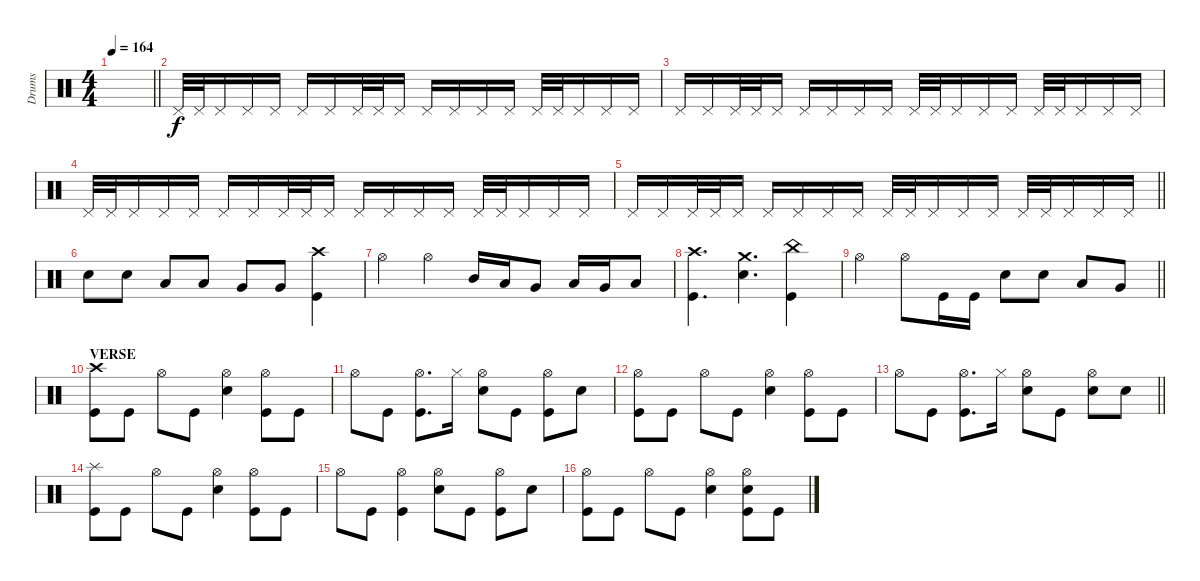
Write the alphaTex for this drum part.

\track ("Drums" "Drums") {instrument percussion}
\staff
\articulation defaults
\ts (4 4)
\tempo 164
\clef neutral
\barLineRight lightlight
\ks c
|
"Pedal Hi-Hat (hit)".32 "Pedal Hi-Hat (hit)".32 "Pedal Hi-Hat (hit)".16 "Pedal Hi-Hat (hit)".16 "Pedal Hi-Hat (hit)".16 "Pedal Hi-Hat (hit)".16 "Pedal Hi-Hat (hit)".16 "Pedal Hi-Hat (hit)".32 "Pedal Hi-Hat (hit)".32 "Pedal Hi-Hat (hit)".16 "Pedal Hi-Hat (hit)".16 "Pedal Hi-Hat (hit)".16 "Pedal Hi-Hat (hit)".16 "Pedal Hi-Hat (hit)".16 "Pedal Hi-Hat (hit)".32 "Pedal Hi-Hat (hit)".32 "Pedal Hi-Hat (hit)".16 "Pedal Hi-Hat (hit)".16 "Pedal Hi-Hat (hit)".16 |
"Pedal Hi-Hat (hit)".16 "Pedal Hi-Hat (hit)".16 "Pedal Hi-Hat (hit)".32 "Pedal Hi-Hat (hit)".32 "Pedal Hi-Hat (hit)".16 "Pedal Hi-Hat (hit)".16 "Pedal Hi-Hat (hit)".16 "Pedal Hi-Hat (hit)".16 "Pedal Hi-Hat (hit)".16 "Pedal Hi-Hat (hit)".32 "Pedal Hi-Hat (hit)".32 "Pedal Hi-Hat (hit)".16 "Pedal Hi-Hat (hit)".16 "Pedal Hi-Hat (hit)".16 "Pedal Hi-Hat (hit)".32 "Pedal Hi-Hat (hit)".32 "Pedal Hi-Hat (hit)".16 "Pedal Hi-Hat (hit)".16 "Pedal Hi-Hat (hit)".16 |
"Pedal Hi-Hat (hit)".32 "Pedal Hi-Hat (hit)".32 "Pedal Hi-Hat (hit)".16 "Pedal Hi-Hat (hit)".16 "Pedal Hi-Hat (hit)".16 "Pedal Hi-Hat (hit)".16 "Pedal Hi-Hat (hit)".16 "Pedal Hi-Hat (hit)".32 "Pedal Hi-Hat (hit)".32 "Pedal Hi-Hat (hit)".16 "Pedal Hi-Hat (hit)".16 "Pedal Hi-Hat (hit)".16 "Pedal Hi-Hat (hit)".16 "Pedal Hi-Hat (hit)".16 "Pedal Hi-Hat (hit)".32 "Pedal Hi-Hat (hit)".32 "Pedal Hi-Hat (hit)".16 "Pedal Hi-Hat (hit)".16 "Pedal Hi-Hat (hit)".16 |
\barLineRight lightlight "Pedal Hi-Hat (hit)".16 "Pedal Hi-Hat (hit)".16 "Pedal Hi-Hat (hit)".32 "Pedal Hi-Hat (hit)".32 "Pedal Hi-Hat (hit)".16 "Pedal Hi-Hat (hit)".16 "Pedal Hi-Hat (hit)".16 "Pedal Hi-Hat (hit)".16 "Pedal Hi-Hat (hit)".16 "Pedal Hi-Hat (hit)".32 "Pedal Hi-Hat (hit)".32 "Pedal Hi-Hat (hit)".16 "Pedal Hi-Hat (hit)".16 "Pedal Hi-Hat (hit)".16 "Pedal Hi-Hat (hit)".32 "Pedal Hi-Hat (hit)".32 "Pedal Hi-Hat (hit)".16 "Pedal Hi-Hat (hit)".16 "Pedal Hi-Hat (hit)".16
|
"Electric Snare (hit)".8 "Electric Snare (hit)".8 "Low Tom (hit)".8 "Low Tom (hit)".8 "Very Low Tom (hit)".8 "Very Low Tom (hit)".8 ("Crash high (hit)" "Kick (hit)").4 |
"Hi-Hat (open)".4 "Hi-Hat (open)".4 "Mid Tom (hit)".16 "Low Tom (hit)".16 "Very Low Tom (hit)".8 "Low Tom (hit)".16 "Very Low Tom (hit)".16 "Low Floor Tom (hit)".8 |
("Crash high (hit)" "Kick (hit)").4{d} ("Crash medium (hit)" "Electric Snare (hit)").4{d} ("China (hit)" "Kick (hit)").4 |
\barLineRight lightlight "Hi-Hat (open)".4 "Hi-Hat (open)".8 "Kick (hit)".16 "Kick (hit)".16 "Electric Snare (hit)".8 "Electric Snare (hit)".8 "Low Tom (hit)".8 "Very Low Tom (hit)".8
|
\section ("" "VERSE")
("Crash high (hit)" "Kick (hit)").8 "Kick (hit)".8 "Hi-Hat (open)".8 "Kick (hit)".8 ("Hi-Hat (open)" "Electric Snare (hit)").4 ("Hi-Hat (open)" "Kick (hit)").8 "Kick (hit)".8 |
"Hi-Hat (open)".8 "Kick (hit)".8 ("Hi-Hat (open)" "Kick (hit)").8{d} "Hi-Hat (closed)".16 ("Hi-Hat (open)" "Electric Snare (hit)").8 "Kick (hit)".8 ("Hi-Hat (open)" "Kick (hit)").8 "Electric Snare (hit)".8 |
("Hi-Hat (open)" "Kick (hit)").8 "Kick (hit)".8 "Hi-Hat (open)".8 "Kick (hit)".8 ("Hi-Hat (open)" "Electric Snare (hit)").4 ("Hi-Hat (open)" "Kick (hit)").8 "Kick (hit)".8 |
\barLineRight lightlight "Hi-Hat (open)".8 "Kick (hit)".8
("Hi-Hat (open)" "Kick (hit)").8{d} "Hi-Hat (closed)".16 ("Hi-Hat (open)" "Electric Snare (hit)").8 "Kick (hit)".8 ("Hi-Hat (open)" "Electric Snare (hit)").8 "Electric Snare (hit)".8 |
("Splash (hit)" "Kick (hit)").8 "Kick (hit)".8 "Hi-Hat (open)".8 "Kick (hit)".8 ("Hi-Hat (open)" "Electric Snare (hit)").4 ("Hi-Hat (open)" "Kick (hit)").8 "Kick (hit)".8 |
"Hi-Hat (open)".8 "Kick (hit)".8 ("Hi-Hat (open)" "Kick (hit)").4 ("Hi-Hat (open)" "Electric Snare (hit)").8 "Kick (hit)".8 ("Hi-Hat (open)" "Kick (hit)").8 "Electric Snare (hit)".8 |
("Hi-Hat (open)" "Kick (hit)").8 "Kick (hit)".8 "Hi-Hat (open)".8 "Kick (hit)".8 ("Hi-Hat (open)" "Electric Snare (hit)").4 ("Hi-Hat (open)" "Electric Snare (hit)" "Kick (hit)").8 "Kick (hit)".8
